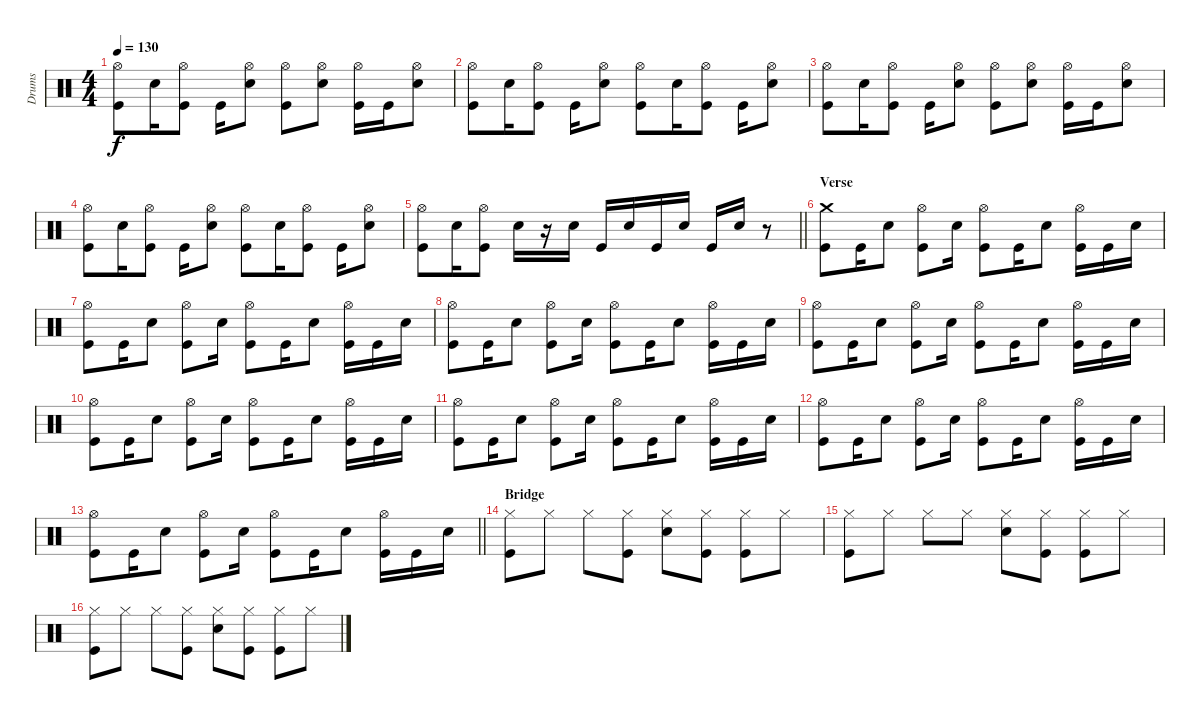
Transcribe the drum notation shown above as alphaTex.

\track ("Drums" "Drums") {instrument percussion}
\staff {score}
\articulation defaults
\ts (4 4)
\tempo 130
\clef neutral
\ks c
("Hi-Hat (open)" "Kick (hit)").8{dy f} "Snare (hit) 2".16 ("Hi-Hat (open)" "Kick (hit)").8 "Kick (hit)".16 ("Hi-Hat (open)" "Snare (hit) 2").8 ("Hi-Hat (open)" "Kick (hit)").8 ("Hi-Hat (open)" "Snare (hit) 2").8 ("Hi-Hat (open)" "Kick (hit)").16 "Kick (hit)".16 ("Hi-Hat (open)" "Snare (hit) 2").8 |
("Hi-Hat (open)" "Kick (hit)").8 "Snare (hit) 2".16 ("Hi-Hat (open)" "Kick (hit)").8 "Kick (hit)".16 ("Hi-Hat (open)" "Snare (hit) 2").8 ("Hi-Hat (open)" "Kick (hit)").8 "Snare (hit) 2".16 ("Hi-Hat (open)" "Kick (hit)").8 "Kick (hit)".16 ("Hi-Hat (open)" "Snare (hit) 2").8 |
("Hi-Hat (open)" "Kick (hit)").8 "Snare (hit) 2".16 ("Hi-Hat (open)" "Kick (hit)").8 "Kick (hit)".16 ("Hi-Hat (open)" "Snare (hit) 2").8 ("Hi-Hat (open)" "Kick (hit)").8 ("Hi-Hat (open)" "Snare (hit) 2").8 ("Hi-Hat (open)" "Kick (hit)").16 "Kick (hit)".16 ("Hi-Hat (open)" "Snare (hit) 2").8 |
("Hi-Hat (open)" "Kick (hit)").8 "Snare (hit) 2".16 ("Hi-Hat (open)" "Kick (hit)").8 "Kick (hit)".16 ("Hi-Hat (open)" "Snare (hit) 2").8 ("Hi-Hat (open)" "Kick (hit)").8 "Snare (hit) 2".16 ("Hi-Hat (open)" "Kick (hit)").8 "Kick (hit)".16 ("Hi-Hat (open)" "Snare (hit) 2").8 |
\barLineRight lightlight
("Hi-Hat (open)" "Kick (hit)").8 "Snare (hit) 2".16 ("Hi-Hat (open)" "Kick (hit)").8 "Snare (hit) 2".16 r.16 "Snare (hit) 2".16 "Kick (hit)".16 "Snare (hit) 2".16 "Kick (hit)".16 "Snare (hit) 2".16 "Kick (hit)".16 "Snare (hit) 2".16 r.8 |
\section ("" "Verse")
("Crash medium (hit)" "Kick (hit)").8 "Kick (hit)".16 "Snare (hit) 2".8 ("Hi-Hat (open)" "Kick (hit)").8 "Snare (hit) 2".16 ("Hi-Hat (open)" "Kick (hit)").8 "Kick (hit)".16 "Snare (hit) 2".8 ("Hi-Hat (open)" "Kick (hit)").16 "Kick (hit)".16 "Snare (hit) 2".16 |
("Hi-Hat (open)" "Kick (hit)").8 "Kick (hit)".16 "Snare (hit) 2".8 ("Hi-Hat (open)" "Kick (hit)").8 "Snare (hit) 2".16 ("Hi-Hat (open)" "Kick (hit)").8 "Kick (hit)".16 "Snare (hit) 2".8 ("Hi-Hat (open)" "Kick (hit)").16 "Kick (hit)".16 "Snare (hit) 2".16 |
("Hi-Hat (open)" "Kick (hit)").8 "Kick (hit)".16 "Snare (hit) 2".8 ("Hi-Hat (open)" "Kick (hit)").8 "Snare (hit) 2".16 ("Hi-Hat (open)" "Kick (hit)").8 "Kick (hit)".16 "Snare (hit) 2".8 ("Hi-Hat (open)" "Kick (hit)").16 "Kick (hit)".16 "Snare (hit) 2".16 |
("Hi-Hat (open)" "Kick (hit)").8 "Kick (hit)".16 "Snare (hit) 2".8 ("Hi-Hat (open)" "Kick (hit)").8 "Snare (hit) 2".16 ("Hi-Hat (open)" "Kick (hit)").8 "Kick (hit)".16 "Snare (hit) 2".8 ("Hi-Hat (open)" "Kick (hit)").16 "Kick (hit)".16 "Snare (hit) 2".16 |
("Hi-Hat (open)" "Kick (hit)").8 "Kick (hit)".16 "Snare (hit) 2".8 ("Hi-Hat (open)" "Kick (hit)").8 "Snare (hit) 2".16 ("Hi-Hat (open)" "Kick (hit)").8 "Kick (hit)".16 "Snare (hit) 2".8 ("Hi-Hat (open)" "Kick (hit)").16 "Kick (hit)".16 "Snare (hit) 2".16 |
("Hi-Hat (open)" "Kick (hit)").8 "Kick (hit)".16 "Snare (hit) 2".8 ("Hi-Hat (open)" "Kick (hit)").8 "Snare (hit) 2".16 ("Hi-Hat (open)" "Kick (hit)").8 "Kick (hit)".16 "Snare (hit) 2".8 ("Hi-Hat (open)" "Kick (hit)").16 "Kick (hit)".16 "Snare (hit) 2".16 |
("Hi-Hat (open)" "Kick (hit)").8 "Kick (hit)".16 "Snare (hit) 2".8 ("Hi-Hat (open)" "Kick (hit)").8 "Snare (hit) 2".16 ("Hi-Hat (open)" "Kick (hit)").8 "Kick (hit)".16 "Snare (hit) 2".8 ("Hi-Hat (open)" "Kick (hit)").16 "Kick (hit)".16 "Snare (hit) 2".16 |
\barLineRight lightlight
("Hi-Hat (open)" "Kick (hit)").8 "Kick (hit)".16 "Snare (hit) 2".8 ("Hi-Hat (open)" "Kick (hit)").8 "Snare (hit) 2".16 ("Hi-Hat (open)" "Kick (hit)").8 "Kick (hit)".16 "Snare (hit) 2".8 ("Hi-Hat (open)" "Kick (hit)").16 "Kick (hit)".16 "Snare (hit) 2".16 |
\section ("" "Bridge")
("Hi-Hat (closed)" "Kick (hit)").8 "Hi-Hat (closed)".8 "Hi-Hat (closed)".8 ("Hi-Hat (closed)" "Kick (hit)").8 ("Hi-Hat (closed)" "Snare (hit) 2").8 ("Hi-Hat (closed)" "Kick (hit)").8 ("Hi-Hat (closed)" "Kick (hit)").8 "Hi-Hat (closed)".8 |
("Hi-Hat (closed)" "Kick (hit)").8 "Hi-Hat (closed)".8 "Hi-Hat (closed)".8 "Hi-Hat (closed)".8 ("Hi-Hat (closed)" "Snare (hit) 2").8 ("Hi-Hat (closed)" "Kick (hit)").8 ("Hi-Hat (closed)" "Kick (hit)").8 "Hi-Hat (closed)".8 |
("Hi-Hat (closed)" "Kick (hit)").8 "Hi-Hat (closed)".8 "Hi-Hat (closed)".8 ("Hi-Hat (closed)" "Kick (hit)").8 ("Hi-Hat (closed)" "Snare (hit) 2").8 ("Hi-Hat (closed)" "Kick (hit)").8 ("Hi-Hat (closed)" "Kick (hit)").8 "Hi-Hat (closed)".8
